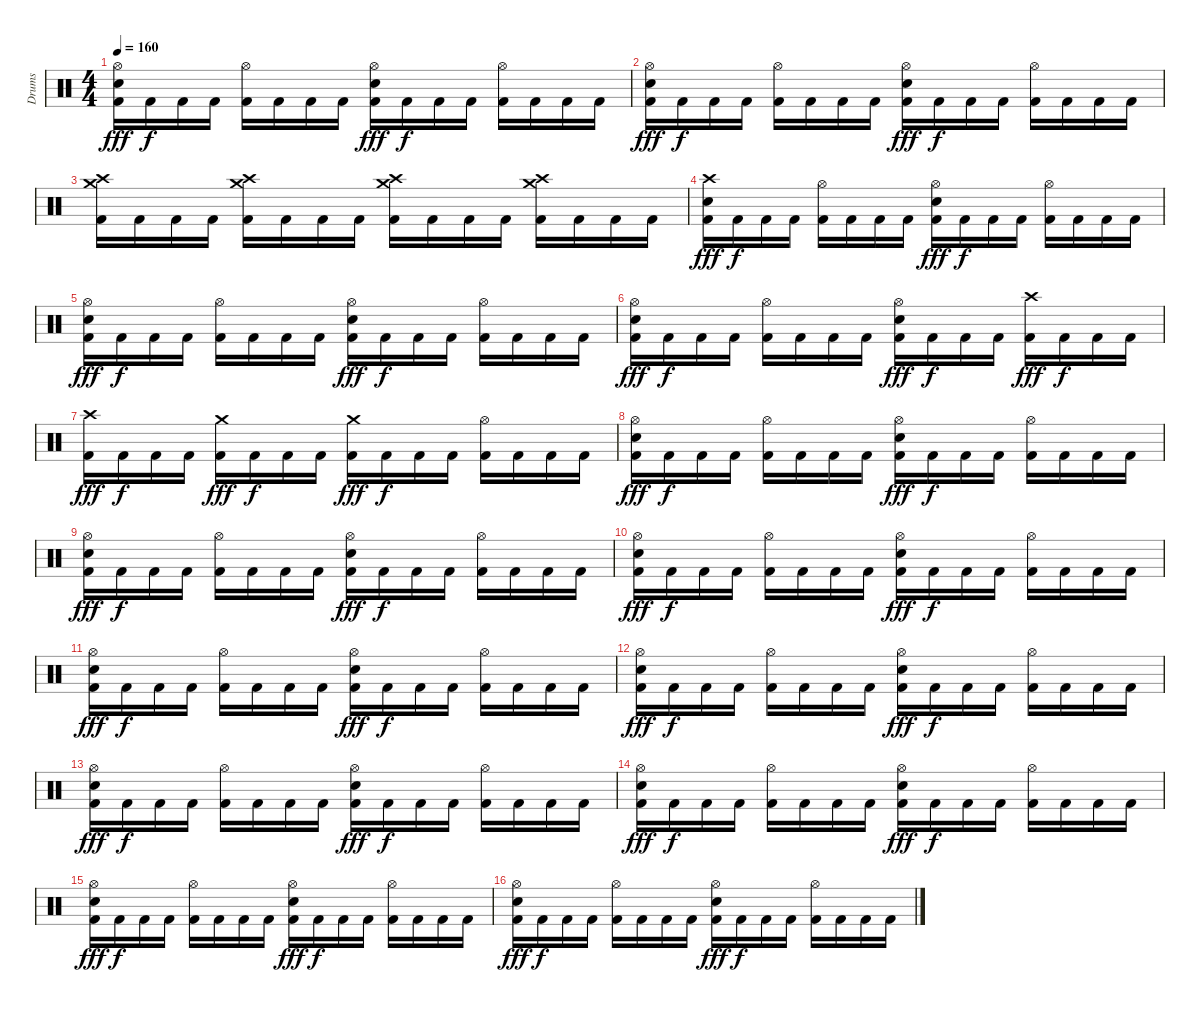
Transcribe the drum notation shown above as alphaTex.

\track ("Drums" "Drums") {instrument percussion}
\staff {score}
\articulation defaults
\ts (4 4)
\tempo 160
\clef neutral
\ks c
("Hi-Hat (open)" "Electric Snare (hit)" "Kick (hit) 2").16{dy fff} "Kick (hit) 2".16{dy f} "Kick (hit) 2".16 "Kick (hit) 2".16 ("Hi-Hat (open)" "Kick (hit) 2").16 "Kick (hit) 2".16 "Kick (hit) 2".16 "Kick (hit) 2".16 ("Hi-Hat (open)" "Electric Snare (hit)" "Kick (hit) 2").16{dy fff} "Kick (hit) 2".16{dy f} "Kick (hit) 2".16 "Kick (hit) 2".16 ("Hi-Hat (open)" "Kick (hit) 2").16 "Kick (hit) 2".16 "Kick (hit) 2".16 "Kick (hit) 2".16 |
("Hi-Hat (open)" "Electric Snare (hit)" "Kick (hit) 2").16{dy fff} "Kick (hit) 2".16{dy f} "Kick (hit) 2".16 "Kick (hit) 2".16 ("Hi-Hat (open)" "Kick (hit) 2").16 "Kick (hit) 2".16 "Kick (hit) 2".16 "Kick (hit) 2".16 ("Hi-Hat (open)" "Electric Snare (hit)" "Kick (hit) 2").16{dy fff} "Kick (hit) 2".16{dy f} "Kick (hit) 2".16 "Kick (hit) 2".16 ("Hi-Hat (open)" "Kick (hit) 2").16 "Kick (hit) 2".16 "Kick (hit) 2".16 "Kick (hit) 2".16 |
("Crash high (hit)" "Crash medium (hit)" "Kick (hit) 2").16 "Kick (hit) 2".16 "Kick (hit) 2".16 "Kick (hit) 2".16 ("Crash high (hit)" "Crash medium (hit)" "Kick (hit) 2").16 "Kick (hit) 2".16 "Kick (hit) 2".16 "Kick (hit) 2".16 ("Crash high (hit)" "Crash medium (hit)" "Kick (hit) 2").16 "Kick (hit) 2".16 "Kick (hit) 2".16 "Kick (hit) 2".16 ("Crash high (hit)" "Crash medium (hit)" "Kick (hit) 2").16 "Kick (hit) 2".16 "Kick (hit) 2".16 "Kick (hit) 2".16 |
("Crash high (hit)" "Electric Snare (hit)" "Kick (hit) 2").16{dy fff} "Kick (hit) 2".16{dy f} "Kick (hit) 2".16 "Kick (hit) 2".16 ("Hi-Hat (open)" "Kick (hit) 2").16 "Kick (hit) 2".16 "Kick (hit) 2".16 "Kick (hit) 2".16 ("Hi-Hat (open)" "Electric Snare (hit)" "Kick (hit) 2").16{dy fff} "Kick (hit) 2".16{dy f} "Kick (hit) 2".16 "Kick (hit) 2".16 ("Hi-Hat (open)" "Kick (hit) 2").16 "Kick (hit) 2".16 "Kick (hit) 2".16 "Kick (hit) 2".16 |
("Hi-Hat (open)" "Electric Snare (hit)" "Kick (hit) 2").16{dy fff} "Kick (hit) 2".16{dy f} "Kick (hit) 2".16 "Kick (hit) 2".16 ("Hi-Hat (open)" "Kick (hit) 2").16 "Kick (hit) 2".16 "Kick (hit) 2".16 "Kick (hit) 2".16 ("Hi-Hat (open)" "Electric Snare (hit)" "Kick (hit) 2").16{dy fff} "Kick (hit) 2".16{dy f} "Kick (hit) 2".16 "Kick (hit) 2".16 ("Hi-Hat (open)" "Kick (hit) 2").16 "Kick (hit) 2".16 "Kick (hit) 2".16 "Kick (hit) 2".16 |
("Hi-Hat (open)" "Electric Snare (hit)" "Kick (hit) 2").16{dy fff} "Kick (hit) 2".16{dy f} "Kick (hit) 2".16 "Kick (hit) 2".16 ("Hi-Hat (open)" "Kick (hit) 2").16 "Kick (hit) 2".16 "Kick (hit) 2".16 "Kick (hit) 2".16 ("Hi-Hat (open)" "Electric Snare (hit)" "Kick (hit) 2").16{dy fff} "Kick (hit) 2".16{dy f} "Kick (hit) 2".16 "Kick (hit) 2".16 ("Crash high (hit)" "Kick (hit) 2").16{dy fff} "Kick (hit) 2".16{dy f} "Kick (hit) 2".16 "Kick (hit) 2".16 |
("Crash high (hit)" "Kick (hit) 2").16{dy fff} "Kick (hit) 2".16{dy f} "Kick (hit) 2".16 "Kick (hit) 2".16 ("Crash medium (hit)" "Kick (hit) 2").16{dy fff} "Kick (hit) 2".16{dy f} "Kick (hit) 2".16 "Kick (hit) 2".16 ("Crash medium (hit)" "Kick (hit) 2").16{dy fff} "Kick (hit) 2".16{dy f} "Kick (hit) 2".16 "Kick (hit) 2".16 ("Hi-Hat (open)" "Kick (hit) 2").16 "Kick (hit) 2".16 "Kick (hit) 2".16 "Kick (hit) 2".16 |
("Hi-Hat (open)" "Electric Snare (hit)" "Kick (hit) 2").16{dy fff} "Kick (hit) 2".16{dy f} "Kick (hit) 2".16 "Kick (hit) 2".16 ("Hi-Hat (open)" "Kick (hit) 2").16 "Kick (hit) 2".16 "Kick (hit) 2".16 "Kick (hit) 2".16 ("Hi-Hat (open)" "Electric Snare (hit)" "Kick (hit) 2").16{dy fff} "Kick (hit) 2".16{dy f} "Kick (hit) 2".16 "Kick (hit) 2".16 ("Hi-Hat (open)" "Kick (hit) 2").16 "Kick (hit) 2".16 "Kick (hit) 2".16 "Kick (hit) 2".16 |
("Hi-Hat (open)" "Electric Snare (hit)" "Kick (hit) 2").16{dy fff} "Kick (hit) 2".16{dy f} "Kick (hit) 2".16 "Kick (hit) 2".16 ("Hi-Hat (open)" "Kick (hit) 2").16 "Kick (hit) 2".16 "Kick (hit) 2".16 "Kick (hit) 2".16 ("Hi-Hat (open)" "Electric Snare (hit)" "Kick (hit) 2").16{dy fff} "Kick (hit) 2".16{dy f} "Kick (hit) 2".16 "Kick (hit) 2".16 ("Hi-Hat (open)" "Kick (hit) 2").16 "Kick (hit) 2".16 "Kick (hit) 2".16 "Kick (hit) 2".16 |
("Hi-Hat (open)" "Electric Snare (hit)" "Kick (hit) 2").16{dy fff} "Kick (hit) 2".16{dy f} "Kick (hit) 2".16 "Kick (hit) 2".16 ("Hi-Hat (open)" "Kick (hit) 2").16 "Kick (hit) 2".16 "Kick (hit) 2".16 "Kick (hit) 2".16 ("Hi-Hat (open)" "Electric Snare (hit)" "Kick (hit) 2").16{dy fff} "Kick (hit) 2".16{dy f} "Kick (hit) 2".16 "Kick (hit) 2".16 ("Hi-Hat (open)" "Kick (hit) 2").16 "Kick (hit) 2".16 "Kick (hit) 2".16 "Kick (hit) 2".16 |
("Hi-Hat (open)" "Electric Snare (hit)" "Kick (hit) 2").16{dy fff} "Kick (hit) 2".16{dy f} "Kick (hit) 2".16 "Kick (hit) 2".16 ("Hi-Hat (open)" "Kick (hit) 2").16 "Kick (hit) 2".16 "Kick (hit) 2".16 "Kick (hit) 2".16 ("Hi-Hat (open)" "Electric Snare (hit)" "Kick (hit) 2").16{dy fff} "Kick (hit) 2".16{dy f} "Kick (hit) 2".16 "Kick (hit) 2".16 ("Hi-Hat (open)" "Kick (hit) 2").16 "Kick (hit) 2".16 "Kick (hit) 2".16 "Kick (hit) 2".16 |
("Hi-Hat (open)" "Electric Snare (hit)" "Kick (hit) 2").16{dy fff} "Kick (hit) 2".16{dy f} "Kick (hit) 2".16 "Kick (hit) 2".16 ("Hi-Hat (open)" "Kick (hit) 2").16 "Kick (hit) 2".16 "Kick (hit) 2".16 "Kick (hit) 2".16 ("Hi-Hat (open)" "Electric Snare (hit)" "Kick (hit) 2").16{dy fff} "Kick (hit) 2".16{dy f} "Kick (hit) 2".16 "Kick (hit) 2".16 ("Hi-Hat (open)" "Kick (hit) 2").16 "Kick (hit) 2".16 "Kick (hit) 2".16 "Kick (hit) 2".16 |
("Hi-Hat (open)" "Electric Snare (hit)" "Kick (hit) 2").16{dy fff} "Kick (hit) 2".16{dy f} "Kick (hit) 2".16 "Kick (hit) 2".16 ("Hi-Hat (open)" "Kick (hit) 2").16 "Kick (hit) 2".16 "Kick (hit) 2".16 "Kick (hit) 2".16 ("Hi-Hat (open)" "Electric Snare (hit)" "Kick (hit) 2").16{dy fff} "Kick (hit) 2".16{dy f} "Kick (hit) 2".16 "Kick (hit) 2".16 ("Hi-Hat (open)" "Kick (hit) 2").16 "Kick (hit) 2".16 "Kick (hit) 2".16 "Kick (hit) 2".16 |
("Hi-Hat (open)" "Electric Snare (hit)" "Kick (hit) 2").16{dy fff} "Kick (hit) 2".16{dy f} "Kick (hit) 2".16 "Kick (hit) 2".16 ("Hi-Hat (open)" "Kick (hit) 2").16 "Kick (hit) 2".16 "Kick (hit) 2".16 "Kick (hit) 2".16 ("Hi-Hat (open)" "Electric Snare (hit)" "Kick (hit) 2").16{dy fff} "Kick (hit) 2".16{dy f} "Kick (hit) 2".16 "Kick (hit) 2".16 ("Hi-Hat (open)" "Kick (hit) 2").16 "Kick (hit) 2".16 "Kick (hit) 2".16 "Kick (hit) 2".16 |
("Hi-Hat (open)" "Electric Snare (hit)" "Kick (hit) 2").16{dy fff} "Kick (hit) 2".16{dy f} "Kick (hit) 2".16 "Kick (hit) 2".16 ("Hi-Hat (open)" "Kick (hit) 2").16 "Kick (hit) 2".16 "Kick (hit) 2".16 "Kick (hit) 2".16 ("Hi-Hat (open)" "Electric Snare (hit)" "Kick (hit) 2").16{dy fff} "Kick (hit) 2".16{dy f} "Kick (hit) 2".16 "Kick (hit) 2".16 ("Hi-Hat (open)" "Kick (hit) 2").16 "Kick (hit) 2".16 "Kick (hit) 2".16 "Kick (hit) 2".16 |
("Hi-Hat (open)" "Electric Snare (hit)" "Kick (hit) 2").16{dy fff} "Kick (hit) 2".16{dy f} "Kick (hit) 2".16 "Kick (hit) 2".16 ("Hi-Hat (open)" "Kick (hit) 2").16 "Kick (hit) 2".16 "Kick (hit) 2".16 "Kick (hit) 2".16 ("Hi-Hat (open)" "Electric Snare (hit)" "Kick (hit) 2").16{dy fff} "Kick (hit) 2".16{dy f} "Kick (hit) 2".16 "Kick (hit) 2".16 ("Hi-Hat (open)" "Kick (hit) 2").16 "Kick (hit) 2".16 "Kick (hit) 2".16 "Kick (hit) 2".16
